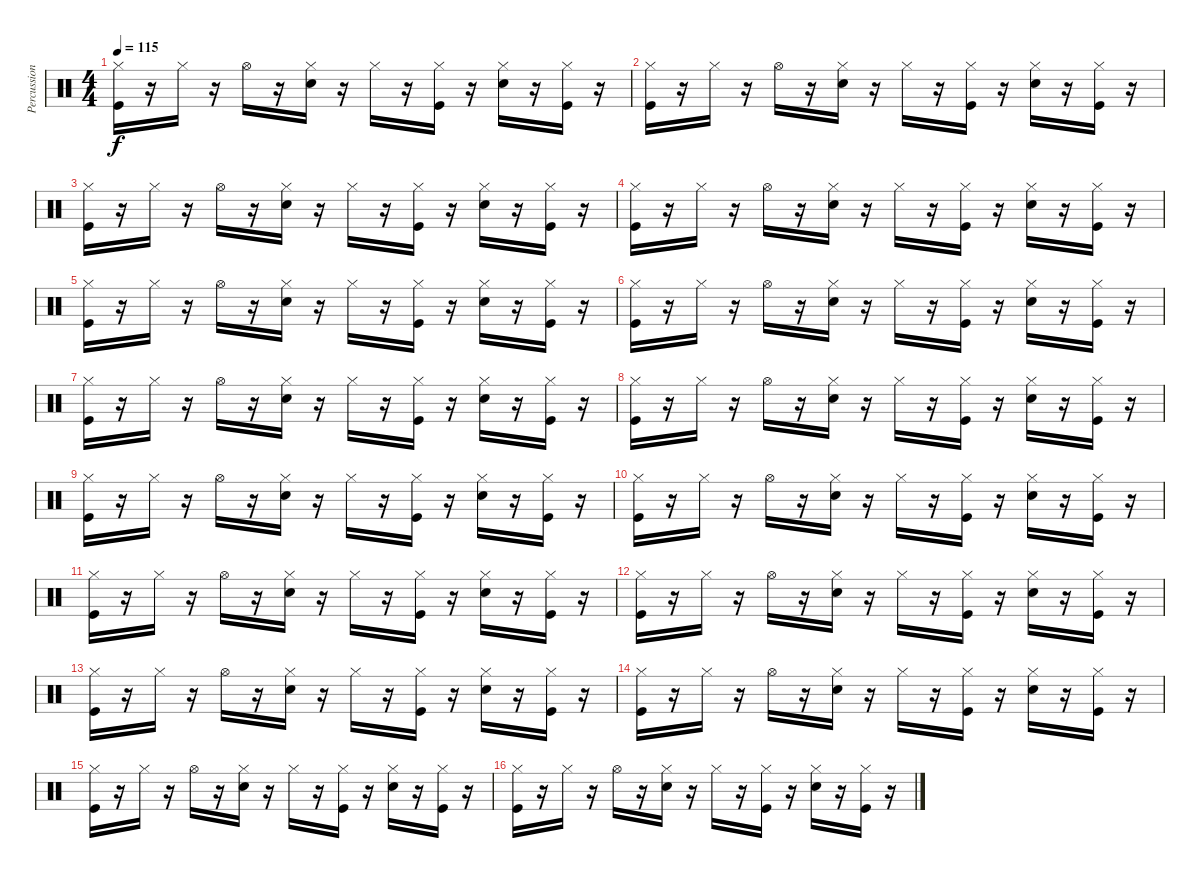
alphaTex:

\track ("Percussion" "Percussion") {instrument percussion}
\staff {score}
\articulation defaults
\ts (4 4)
\tempo 115
\clef neutral
\ks c
("Hi-Hat (closed)" "Kick (hit)").16{dy f} r.16 "Hi-Hat (closed)".16 r.16 "Hi-Hat (open)".16 r.16 ("Hi-Hat (closed)" "Snare (hit) 2").16 r.16 "Hi-Hat (closed)".16 r.16 ("Hi-Hat (closed)" "Kick (hit)").16 r.16 ("Hi-Hat (closed)" "Snare (hit) 2").16 r.16 ("Hi-Hat (closed)" "Kick (hit)").16 r.16 |
("Hi-Hat (closed)" "Kick (hit)").16 r.16 "Hi-Hat (closed)".16 r.16 "Hi-Hat (open)".16 r.16 ("Hi-Hat (closed)" "Snare (hit) 2").16 r.16 "Hi-Hat (closed)".16 r.16 ("Hi-Hat (closed)" "Kick (hit)").16 r.16 ("Hi-Hat (closed)" "Snare (hit) 2").16 r.16 ("Hi-Hat (closed)" "Kick (hit)").16 r.16 |
("Hi-Hat (closed)" "Kick (hit)").16 r.16 "Hi-Hat (closed)".16 r.16 "Hi-Hat (open)".16 r.16 ("Hi-Hat (closed)" "Snare (hit) 2").16 r.16 "Hi-Hat (closed)".16 r.16 ("Hi-Hat (closed)" "Kick (hit)").16 r.16 ("Hi-Hat (closed)" "Snare (hit) 2").16 r.16 ("Hi-Hat (closed)" "Kick (hit)").16 r.16 |
("Hi-Hat (closed)" "Kick (hit)").16 r.16 "Hi-Hat (closed)".16 r.16 "Hi-Hat (open)".16 r.16 ("Hi-Hat (closed)" "Snare (hit) 2").16 r.16 "Hi-Hat (closed)".16 r.16 ("Hi-Hat (closed)" "Kick (hit)").16 r.16 ("Hi-Hat (closed)" "Snare (hit) 2").16 r.16 ("Hi-Hat (closed)" "Kick (hit)").16 r.16 |
("Hi-Hat (closed)" "Kick (hit)").16 r.16 "Hi-Hat (closed)".16 r.16 "Hi-Hat (open)".16 r.16 ("Hi-Hat (closed)" "Snare (hit) 2").16 r.16 "Hi-Hat (closed)".16 r.16 ("Hi-Hat (closed)" "Kick (hit)").16 r.16 ("Hi-Hat (closed)" "Snare (hit) 2").16 r.16 ("Hi-Hat (closed)" "Kick (hit)").16 r.16 |
("Hi-Hat (closed)" "Kick (hit)").16 r.16 "Hi-Hat (closed)".16 r.16 "Hi-Hat (open)".16 r.16 ("Hi-Hat (closed)" "Snare (hit) 2").16 r.16 "Hi-Hat (closed)".16 r.16 ("Hi-Hat (closed)" "Kick (hit)").16 r.16 ("Hi-Hat (closed)" "Snare (hit) 2").16 r.16 ("Hi-Hat (closed)" "Kick (hit)").16 r.16 |
("Hi-Hat (closed)" "Kick (hit)").16 r.16 "Hi-Hat (closed)".16 r.16 "Hi-Hat (open)".16 r.16 ("Hi-Hat (closed)" "Snare (hit) 2").16 r.16 "Hi-Hat (closed)".16 r.16 ("Hi-Hat (closed)" "Kick (hit)").16 r.16 ("Hi-Hat (closed)" "Snare (hit) 2").16 r.16 ("Hi-Hat (closed)" "Kick (hit)").16 r.16 |
("Hi-Hat (closed)" "Kick (hit)").16 r.16 "Hi-Hat (closed)".16 r.16 "Hi-Hat (open)".16 r.16 ("Hi-Hat (closed)" "Snare (hit) 2").16 r.16 "Hi-Hat (closed)".16 r.16 ("Hi-Hat (closed)" "Kick (hit)").16 r.16 ("Hi-Hat (closed)" "Snare (hit) 2").16 r.16 ("Hi-Hat (closed)" "Kick (hit)").16 r.16 |
("Hi-Hat (closed)" "Kick (hit)").16 r.16 "Hi-Hat (closed)".16 r.16 "Hi-Hat (open)".16 r.16 ("Hi-Hat (closed)" "Snare (hit) 2").16 r.16 "Hi-Hat (closed)".16 r.16 ("Hi-Hat (closed)" "Kick (hit)").16 r.16 ("Hi-Hat (closed)" "Snare (hit) 2").16 r.16 ("Hi-Hat (closed)" "Kick (hit)").16 r.16 |
("Hi-Hat (closed)" "Kick (hit)").16 r.16 "Hi-Hat (closed)".16 r.16 "Hi-Hat (open)".16 r.16 ("Hi-Hat (closed)" "Snare (hit) 2").16 r.16 "Hi-Hat (closed)".16 r.16 ("Hi-Hat (closed)" "Kick (hit)").16 r.16 ("Hi-Hat (closed)" "Snare (hit) 2").16 r.16 ("Hi-Hat (closed)" "Kick (hit)").16 r.16 |
("Hi-Hat (closed)" "Kick (hit)").16 r.16 "Hi-Hat (closed)".16 r.16 "Hi-Hat (open)".16 r.16 ("Hi-Hat (closed)" "Snare (hit) 2").16 r.16 "Hi-Hat (closed)".16 r.16 ("Hi-Hat (closed)" "Kick (hit)").16 r.16 ("Hi-Hat (closed)" "Snare (hit) 2").16 r.16 ("Hi-Hat (closed)" "Kick (hit)").16 r.16 |
("Hi-Hat (closed)" "Kick (hit)").16 r.16 "Hi-Hat (closed)".16 r.16 "Hi-Hat (open)".16 r.16 ("Hi-Hat (closed)" "Snare (hit) 2").16 r.16 "Hi-Hat (closed)".16 r.16 ("Hi-Hat (closed)" "Kick (hit)").16 r.16 ("Hi-Hat (closed)" "Snare (hit) 2").16 r.16 ("Hi-Hat (closed)" "Kick (hit)").16 r.16 |
("Hi-Hat (closed)" "Kick (hit)").16 r.16 "Hi-Hat (closed)".16 r.16 "Hi-Hat (open)".16 r.16 ("Hi-Hat (closed)" "Snare (hit) 2").16 r.16 "Hi-Hat (closed)".16 r.16 ("Hi-Hat (closed)" "Kick (hit)").16 r.16 ("Hi-Hat (closed)" "Snare (hit) 2").16 r.16 ("Hi-Hat (closed)" "Kick (hit)").16 r.16 |
("Hi-Hat (closed)" "Kick (hit)").16 r.16 "Hi-Hat (closed)".16 r.16 "Hi-Hat (open)".16 r.16 ("Hi-Hat (closed)" "Snare (hit) 2").16 r.16 "Hi-Hat (closed)".16 r.16 ("Hi-Hat (closed)" "Kick (hit)").16 r.16 ("Hi-Hat (closed)" "Snare (hit) 2").16 r.16 ("Hi-Hat (closed)" "Kick (hit)").16 r.16 |
("Hi-Hat (closed)" "Kick (hit)").16 r.16 "Hi-Hat (closed)".16 r.16 "Hi-Hat (open)".16 r.16 ("Hi-Hat (closed)" "Snare (hit) 2").16 r.16 "Hi-Hat (closed)".16 r.16 ("Hi-Hat (closed)" "Kick (hit)").16 r.16 ("Hi-Hat (closed)" "Snare (hit) 2").16 r.16 ("Hi-Hat (closed)" "Kick (hit)").16 r.16 |
("Hi-Hat (closed)" "Kick (hit)").16 r.16 "Hi-Hat (closed)".16 r.16 "Hi-Hat (open)".16 r.16 ("Hi-Hat (closed)" "Snare (hit) 2").16 r.16 "Hi-Hat (closed)".16 r.16 ("Hi-Hat (closed)" "Kick (hit)").16 r.16 ("Hi-Hat (closed)" "Snare (hit) 2").16 r.16 ("Hi-Hat (closed)" "Kick (hit)").16 r.16
